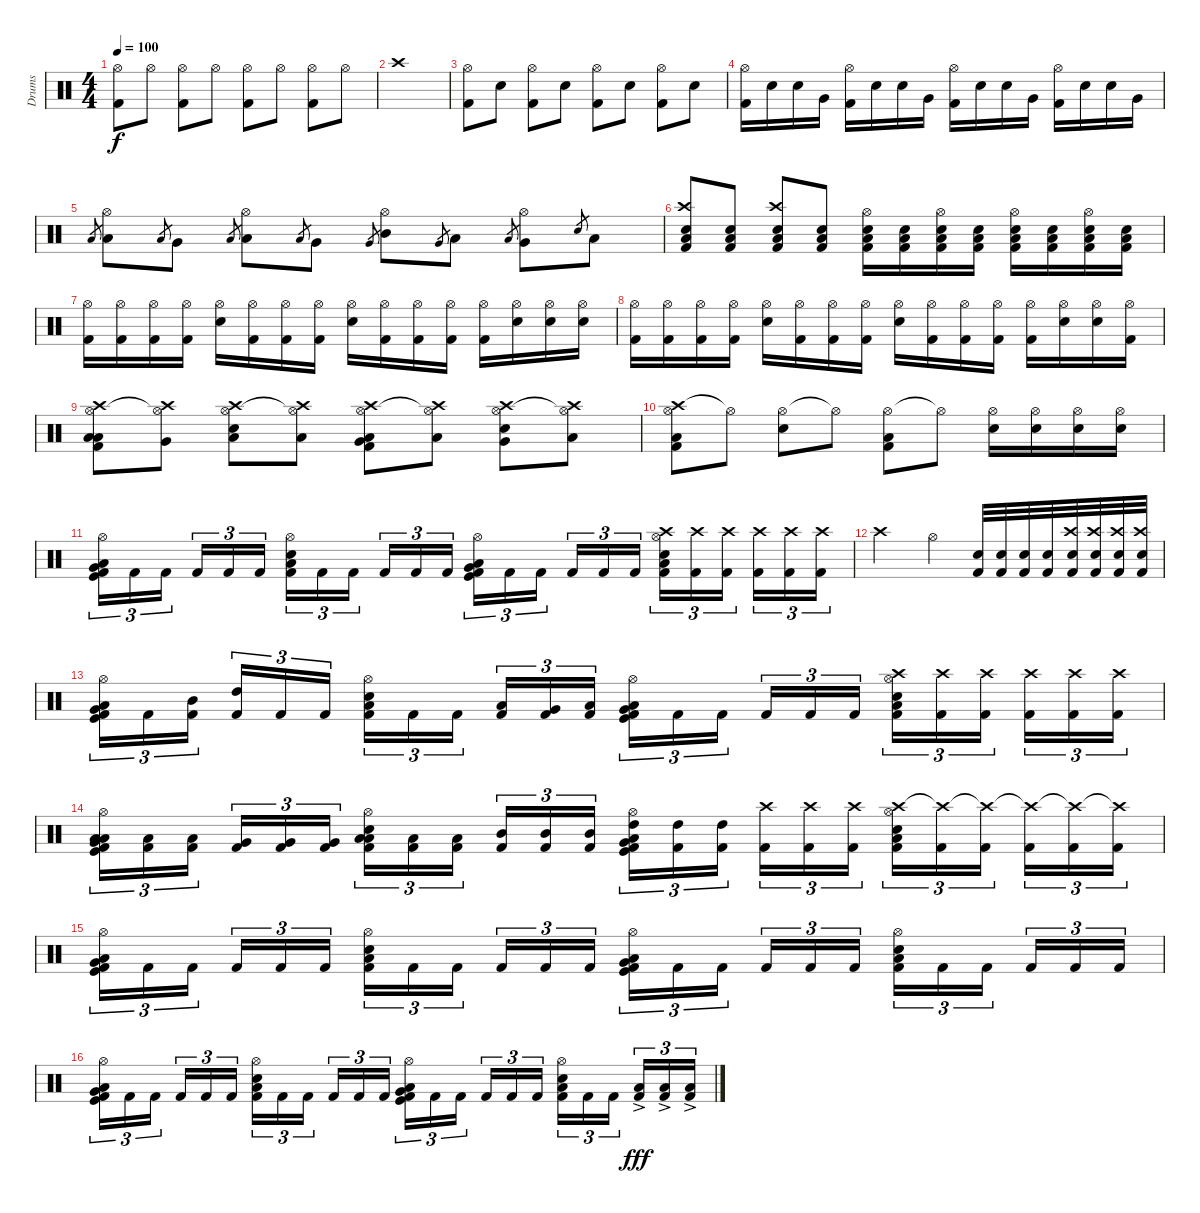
\track ("Drums" "Drums") {instrument percussion}
\staff {score}
\articulation defaults
\ts (4 4)
\tempo 100
\clef neutral
\ks c
("Hi-Hat (open)" "Kick (hit) 2").8{dy f} "Hi-Hat (open)".8 ("Hi-Hat (open)" "Kick (hit) 2").8 "Hi-Hat (open)".8 ("Hi-Hat (open)" "Kick (hit) 2").8 "Hi-Hat (open)".8 ("Hi-Hat (open)" "Kick (hit) 2").8 "Hi-Hat (open)".8 |
"Crash high (hit)".1 |
("Hi-Hat (open)" "Kick (hit) 2").8{volume 13} "Electric Snare (hit)".8 ("Hi-Hat (open)" "Kick (hit) 2").8 "Electric Snare (hit)".8 ("Hi-Hat (open)" "Kick (hit) 2").8 "Electric Snare (hit)".8 ("Hi-Hat (open)" "Kick (hit) 2").8 "Electric Snare (hit)".8 |
("Hi-Hat (open)" "Kick (hit) 2").16 "Electric Snare (hit)".16 "Electric Snare (hit)".16 "Very Low Tom (hit)".16 ("Hi-Hat (open)" "Kick (hit) 2").16 "Electric Snare (hit)".16 "Electric Snare (hit)".16 "Very Low Tom (hit)".16 ("Hi-Hat (open)" "Kick (hit) 2").16 "Electric Snare (hit)".16 "Electric Snare (hit)".16 "Very Low Tom (hit)".16 ("Hi-Hat (open)" "Kick (hit) 2").16 "Electric Snare (hit)".16 "Electric Snare (hit)".16 "Very Low Tom (hit)".16 |
"Low Floor Tom (hit)".8{gr} ("Hi-Hat (open)" "Low Tom (hit)").8 "Low Floor Tom (hit)".8{gr} "Very Low Tom (hit)".8 "Low Floor Tom (hit)".8{gr} ("Hi-Hat (open)" "Low Tom (hit)").8 "Low Floor Tom (hit)".8{gr} "Very Low Tom (hit)".8 "Very Low Tom (hit)".8{gr} ("Hi-Hat (open)" "Mid Tom (hit)").8 "Very Low Tom (hit)".8{gr} "Low Tom (hit)".8 "Low Floor Tom (hit)".8{gr} ("Hi-Hat (open)" "Very Low Tom (hit)").8 "Electric Snare (hit)".8{gr} "Low Floor Tom (hit)".8 |
("Crash high (hit)" "Electric Snare (hit)" "Kick (hit) 2" "Low Floor Tom (hit)").8 ("Electric Snare (hit)" "Kick (hit) 2" "Low Floor Tom (hit)").8 ("Crash high (hit)" "Electric Snare (hit)" "Kick (hit) 2" "Low Floor Tom (hit)").8 ("Electric Snare (hit)" "Kick (hit) 2" "Low Floor Tom (hit)").8 ("Hi-Hat (open)" "Electric Snare (hit)" "Low Floor Tom (hit)" "Kick (hit) 2").16 ("Electric Snare (hit)" "Low Floor Tom (hit)" "Kick (hit) 2").16 ("Hi-Hat (open)" "Electric Snare (hit)" "Low Floor Tom (hit)" "Kick (hit) 2").16 ("Electric Snare (hit)" "Low Floor Tom (hit)" "Kick (hit) 2").16 ("Hi-Hat (open)" "Electric Snare (hit)" "Low Floor Tom (hit)" "Kick (hit) 2").16 ("Electric Snare (hit)" "Low Floor Tom (hit)" "Kick (hit) 2").16 ("Hi-Hat (open)" "Electric Snare (hit)" "Low Floor Tom (hit)" "Kick (hit) 2").16 ("Electric Snare (hit)" "Low Floor Tom (hit)" "Kick (hit) 2").16 |
("Hi-Hat (open)" "Kick (hit) 2").16 ("Hi-Hat (open)" "Kick (hit) 2").16 ("Hi-Hat (open)" "Kick (hit) 2").16 ("Hi-Hat (open)" "Kick (hit) 2").16 ("Hi-Hat (open)" "Electric Snare (hit)").16 ("Hi-Hat (open)" "Kick (hit) 2").16 ("Hi-Hat (open)" "Kick (hit) 2").16 ("Hi-Hat (open)" "Kick (hit) 2").16 ("Hi-Hat (open)" "Electric Snare (hit)").16 ("Hi-Hat (open)" "Kick (hit) 2").16 ("Hi-Hat (open)" "Kick (hit) 2").16 ("Hi-Hat (open)" "Kick (hit) 2").16 ("Hi-Hat (open)" "Kick (hit) 2").16 ("Hi-Hat (open)" "Electric Snare (hit)").16 ("Hi-Hat (open)" "Electric Snare (hit)").16 ("Hi-Hat (open)" "Electric Snare (hit)").16 |
("Hi-Hat (open)" "Kick (hit) 2").16 ("Hi-Hat (open)" "Kick (hit) 2").16 ("Hi-Hat (open)" "Kick (hit) 2").16 ("Hi-Hat (open)" "Kick (hit) 2").16 ("Hi-Hat (open)" "Electric Snare (hit)").16 ("Hi-Hat (open)" "Kick (hit) 2").16 ("Hi-Hat (open)" "Kick (hit) 2").16 ("Hi-Hat (open)" "Kick (hit) 2").16 ("Hi-Hat (open)" "Electric Snare (hit)").16 ("Hi-Hat (open)" "Kick (hit) 2").16 ("Hi-Hat (open)" "Kick (hit) 2").16 ("Hi-Hat (open)" "Kick (hit) 2").16 ("Hi-Hat (open)" "Kick (hit) 2").16 ("Hi-Hat (open)" "Electric Snare (hit)").16 ("Hi-Hat (open)" "Electric Snare (hit)").16 ("Hi-Hat (open)" "Kick (hit) 2").16 |
("Low Tom (hit)" "Crash high (hit)" "Hi-Hat (open)" "Low Floor Tom (hit)" "Kick (hit) 2").8 ("Very Low Tom (hit)" "Crash high (hit)" "Hi-Hat (open)"{t}).8 ("Low Floor Tom (hit)" "Crash high (hit)" "Hi-Hat (open)" "Snare (hit) 2").8 ("Low Tom (hit)" "Crash high (hit)" "Hi-Hat (open)"{t}).8 ("Very Low Tom (hit)" "Crash high (hit)" "Hi-Hat (open)" "Kick (hit) 2" "Low Floor Tom (hit)").8 ("Low Floor Tom (hit)" "Crash high (hit)" "Hi-Hat (open)"{t}).8 ("Very Low Tom (hit)" "Crash high (hit)" "Hi-Hat (open)" "Snare (hit) 2").8 ("Low Floor Tom (hit)" "Crash high (hit)" "Hi-Hat (open)"{t}).8 |
("Crash high (hit)" "Hi-Hat (open)" "Low Floor Tom (hit)" "Kick (hit) 2").8 "Hi-Hat (open)"{t}.8 ("Hi-Hat (open)" "Snare (hit) 2").8 "Hi-Hat (open)"{t}.8 ("Hi-Hat (open)" "Kick (hit) 2" "Low Floor Tom (hit)").8 "Hi-Hat (open)"{t}.8 ("Hi-Hat (open)" "Snare (hit) 2").16 ("Hi-Hat (open)" "Snare (hit) 2").16 ("Hi-Hat (open)" "Snare (hit) 2").16 ("Hi-Hat (open)" "Snare (hit) 2").16 |
("Hi-Hat (open)" "Very Low Tom (hit)" "Low Floor Tom (hit)" "Kick (hit) 2" "Kick (hit)").16{tu (3 2)} "Kick (hit) 2".16{tu (3 2)} "Kick (hit) 2".16{tu (3 2)} "Kick (hit) 2".16{tu (3 2)} "Kick (hit) 2".16{tu (3 2)} "Kick (hit) 2".16{tu (3 2)} ("Hi-Hat (open)" "Snare (hit) 2" "Low Floor Tom (hit)" "Kick (hit) 2").16{tu (3 2)} "Kick (hit) 2".16{tu (3 2)} "Kick (hit) 2".16{tu (3 2)} "Kick (hit) 2".16{tu (3 2)} "Kick (hit) 2".16{tu (3 2)} "Kick (hit) 2".16{tu (3 2)} ("Hi-Hat (open)" "Very Low Tom (hit)" "Low Floor Tom (hit)" "Kick (hit) 2" "Kick (hit)").16{tu (3 2)} "Kick (hit) 2".16{tu (3 2)} "Kick (hit) 2".16{tu (3 2)} "Kick (hit) 2".16{tu (3 2)} "Kick (hit) 2".16{tu (3 2)} "Kick (hit) 2".16{tu (3 2)} ("Crash high (hit)" "Hi-Hat (open)" "Snare (hit) 2" "Low Floor Tom (hit)" "Kick (hit) 2").16{tu (3 2)} ("Crash high (hit)" "Kick (hit) 2").16{tu (3 2)} ("Crash high (hit)" "Kick (hit) 2").16{tu (3 2)} ("Crash high (hit)" "Kick (hit) 2").16{tu (3 2)} ("Crash high (hit)" "Kick (hit) 2").16{tu (3 2)} ("Crash high (hit)" "Kick (hit) 2").16{tu (3 2)} |
"Crash high (hit)".2 "Hi-Hat (open)".4 ("Snare (hit) 2" "Kick (hit) 2").32 ("Snare (hit) 2" "Kick (hit) 2").32 ("Snare (hit) 2" "Kick (hit) 2").32 ("Snare (hit) 2" "Kick (hit) 2").32 ("Crash high (hit)" "Snare (hit) 2" "Kick (hit) 2").32 ("Crash high (hit)" "Snare (hit) 2" "Kick (hit) 2").32 ("Crash high (hit)" "Snare (hit) 2" "Kick (hit) 2").32 ("Crash high (hit)" "Snare (hit) 2" "Kick (hit) 2").32 |
("Hi-Hat (open)" "Very Low Tom (hit)" "Low Floor Tom (hit)" "Kick (hit) 2" "Kick (hit)").16{tu (3 2)} "Kick (hit) 2".16{tu (3 2)} ("Mid Tom (hit)" "Kick (hit) 2").16{tu (3 2)} ("High Tom (hit)" "Kick (hit) 2").16{tu (3 2)} "Kick (hit) 2".16{tu (3 2)} "Kick (hit) 2".16{tu (3 2)} ("Hi-Hat (open)" "Snare (hit) 2" "Low Floor Tom (hit)" "Kick (hit) 2").16{tu (3 2)} "Kick (hit) 2".16{tu (3 2)} "Kick (hit) 2".16{tu (3 2)} ("Low Tom (hit)" "Kick (hit) 2").16{tu (3 2)} ("Very Low Tom (hit)" "Kick (hit) 2").16{tu (3 2)} ("Low Floor Tom (hit)" "Kick (hit) 2").16{tu (3 2)} ("Hi-Hat (open)" "Very Low Tom (hit)" "Low Floor Tom (hit)" "Kick (hit) 2" "Kick (hit)").16{tu (3 2)} "Kick (hit) 2".16{tu (3 2)} "Kick (hit) 2".16{tu (3 2)} "Kick (hit) 2".16{tu (3 2)} "Kick (hit) 2".16{tu (3 2)} "Kick (hit) 2".16{tu (3 2)} ("Crash high (hit)" "Hi-Hat (open)" "Snare (hit) 2" "Low Floor Tom (hit)" "Kick (hit) 2").16{tu (3 2)} ("Crash high (hit)" "Kick (hit) 2").16{tu (3 2)} ("Crash high (hit)" "Kick (hit) 2").16{tu (3 2)} ("Crash high (hit)" "Kick (hit) 2").16{tu (3 2)} ("Crash high (hit)" "Kick (hit) 2").16{tu (3 2)} ("Crash high (hit)" "Kick (hit) 2").16{tu (3 2)} |
("Low Floor Tom (hit)" "Hi-Hat (open)" "Very Low Tom (hit)" "Low Floor Tom (hit)" "Kick (hit) 2" "Kick (hit)").16{tu (3 2)} ("Low Floor Tom (hit)" "Kick (hit) 2").16{tu (3 2)} ("Low Floor Tom (hit)" "Kick (hit) 2").16{tu (3 2)} ("Very Low Tom (hit)" "Kick (hit) 2").16{tu (3 2)} ("Very Low Tom (hit)" "Kick (hit) 2").16{tu (3 2)} ("Very Low Tom (hit)" "Kick (hit) 2").16{tu (3 2)} ("Low Tom (hit)" "Hi-Hat (open)" "Snare (hit) 2" "Low Floor Tom (hit)" "Kick (hit) 2").16{tu (3 2)} ("Low Tom (hit)" "Kick (hit) 2").16{tu (3 2)} ("Low Tom (hit)" "Kick (hit) 2").16{tu (3 2)} ("Mid Tom (hit)" "Kick (hit) 2").16{tu (3 2)} ("Mid Tom (hit)" "Kick (hit) 2").16{tu (3 2)} ("Mid Tom (hit)" "Kick (hit) 2").16{tu (3 2)} ("High Tom (hit)" "Hi-Hat (open)" "Very Low Tom (hit)" "Low Floor Tom (hit)" "Kick (hit) 2" "Kick (hit)").16{tu (3 2)} ("High Tom (hit)" "Kick (hit) 2").16{tu (3 2)} ("High Tom (hit)" "Kick (hit) 2").16{tu (3 2)} ("Crash high (hit)" "Kick (hit) 2").16{tu (3 2)} ("Crash high (hit)" "Kick (hit) 2").16{tu (3 2)} ("Crash high (hit)" "Kick (hit) 2").16{tu (3 2)} ("Crash high (hit)" "Hi-Hat (open)" "Snare (hit) 2" "Low Floor Tom (hit)" "Kick (hit) 2").16{tu (3 2)} ("Crash high (hit)"{t} "Kick (hit) 2").16{tu (3 2)} ("Crash high (hit)"{t} "Kick (hit) 2").16{tu (3 2)} ("Crash high (hit)"{t} "Kick (hit) 2").16{tu (3 2)} ("Crash high (hit)"{t} "Kick (hit) 2").16{tu (3 2)} ("Crash high (hit)"{t} "Kick (hit) 2").16{tu (3 2)} |
("Hi-Hat (open)" "Very Low Tom (hit)" "Low Floor Tom (hit)" "Kick (hit) 2" "Kick (hit)").16{tu (3 2)} "Kick (hit) 2".16{tu (3 2)} "Kick (hit) 2".16{tu (3 2)} "Kick (hit) 2".16{tu (3 2)} "Kick (hit) 2".16{tu (3 2)} "Kick (hit) 2".16{tu (3 2)} ("Hi-Hat (open)" "Snare (hit) 2" "Low Floor Tom (hit)" "Kick (hit) 2").16{tu (3 2)} "Kick (hit) 2".16{tu (3 2)} "Kick (hit) 2".16{tu (3 2)} "Kick (hit) 2".16{tu (3 2)} "Kick (hit) 2".16{tu (3 2)} "Kick (hit) 2".16{tu (3 2)} ("Hi-Hat (open)" "Very Low Tom (hit)" "Low Floor Tom (hit)" "Kick (hit) 2" "Kick (hit)").16{tu (3 2)} "Kick (hit) 2".16{tu (3 2)} "Kick (hit) 2".16{tu (3 2)} "Kick (hit) 2".16{tu (3 2)} "Kick (hit) 2".16{tu (3 2)} "Kick (hit) 2".16{tu (3 2)} ("Hi-Hat (open)" "Snare (hit) 2" "Low Floor Tom (hit)" "Kick (hit) 2").16{tu (3 2)} "Kick (hit) 2".16{tu (3 2)} "Kick (hit) 2".16{tu (3 2)} "Kick (hit) 2".16{tu (3 2)} "Kick (hit) 2".16{tu (3 2)} "Kick (hit) 2".16{tu (3 2)} |
("Hi-Hat (open)" "Very Low Tom (hit)" "Low Floor Tom (hit)" "Kick (hit) 2" "Kick (hit)").16{tu (3 2)} "Kick (hit) 2".16{tu (3 2)} "Kick (hit) 2".16{tu (3 2)} "Kick (hit) 2".16{tu (3 2)} "Kick (hit) 2".16{tu (3 2)} "Kick (hit) 2".16{tu (3 2)} ("Hi-Hat (open)" "Snare (hit) 2" "Low Floor Tom (hit)" "Kick (hit) 2").16{tu (3 2)} "Kick (hit) 2".16{tu (3 2)} "Kick (hit) 2".16{tu (3 2)} "Kick (hit) 2".16{tu (3 2)} "Kick (hit) 2".16{tu (3 2)} "Kick (hit) 2".16{tu (3 2)} ("Hi-Hat (open)" "Very Low Tom (hit)" "Low Floor Tom (hit)" "Kick (hit) 2" "Kick (hit)").16{tu (3 2)} "Kick (hit) 2".16{tu (3 2)} "Kick (hit) 2".16{tu (3 2)} "Kick (hit) 2".16{tu (3 2)} "Kick (hit) 2".16{tu (3 2)} "Kick (hit) 2".16{tu (3 2)} ("Hi-Hat (open)" "Snare (hit) 2" "Low Floor Tom (hit)" "Kick (hit) 2").16{tu (3 2)} "Kick (hit) 2".16{tu (3 2)} "Kick (hit) 2".16{tu (3 2)} ("Low Tom (hit)"{ac} "Kick (hit) 2").16{tu (3 2) dy fff} ("Low Tom (hit)"{ac} "Kick (hit) 2").16{tu (3 2)} ("Low Tom (hit)"{ac} "Kick (hit) 2").16{tu (3 2)}
